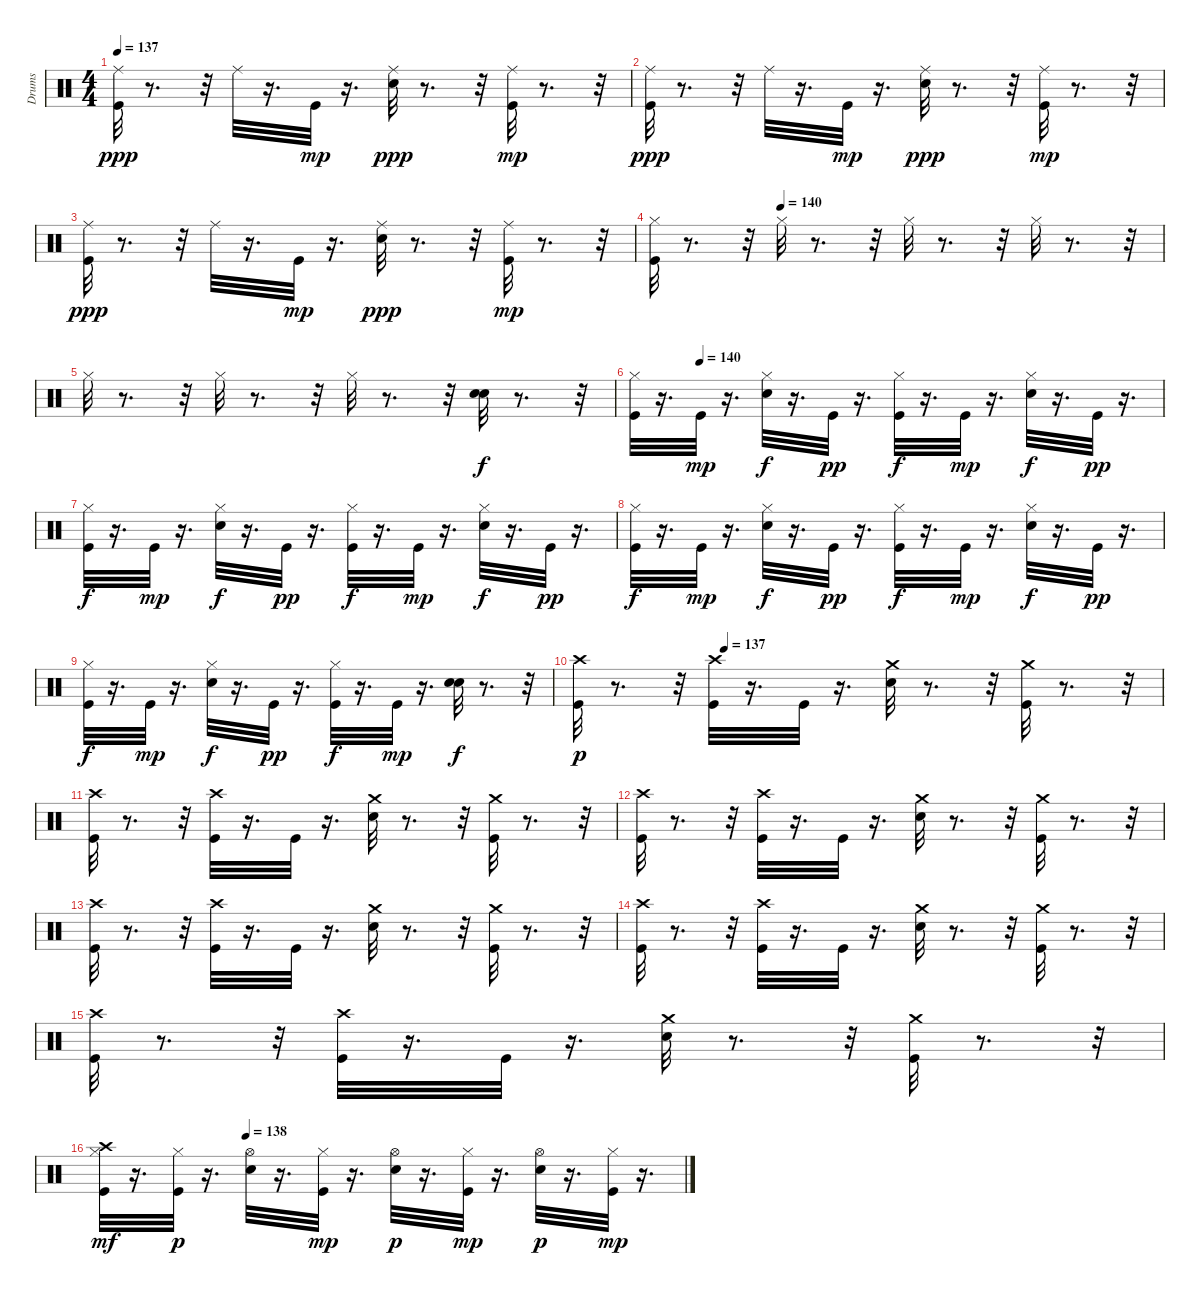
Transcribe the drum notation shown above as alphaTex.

\track ("Drums" "Drums") {instrument percussion}
\staff {score}
\articulation defaults
\ts (4 4)
\tempo 137
\clef neutral
\ks c
("Ride (middle)" "Kick (hit)").32{dy ppp} r.8{d} r.32 "Ride (middle)".32 r.16{d} "Kick (hit)".32{dy mp} r.16{d} ("Ride (middle)" "Snare (hit) 2").32{dy ppp} r.8{d} r.32 ("Ride (middle)" "Kick (hit)").32{dy mp} r.8{d} r.32 |
("Ride (middle)" "Kick (hit)").32{dy ppp} r.8{d} r.32 "Ride (middle)".32 r.16{d} "Kick (hit)".32{dy mp} r.16{d} ("Ride (middle)" "Snare (hit) 2").32{dy ppp} r.8{d} r.32 ("Ride (middle)" "Kick (hit)").32{dy mp} r.8{d} r.32 |
("Ride (middle)" "Kick (hit)").32{dy ppp} r.8{d} r.32 "Ride (middle)".32 r.16{d} "Kick (hit)".32{dy mp} r.16{d} ("Ride (middle)" "Snare (hit) 2").32{dy ppp} r.8{d} r.32 ("Ride (middle)" "Kick (hit)").32{dy mp} r.8{d} r.32 |
\tempo (140 0.25)
("Hi-Hat (closed)" "Kick (hit)").32 r.8{d} r.32 "Hi-Hat (closed)".32 r.8{d} r.32 "Hi-Hat (closed)".32 r.8{d} r.32 "Hi-Hat (closed)".32 r.8{d} r.32 |
"Hi-Hat (closed)".32 r.8{d} r.32 "Hi-Hat (closed)".32 r.8{d} r.32 "Hi-Hat (closed)".32 r.8{d} r.32 ("Electric Snare (hit)" "Snare (hit) 2").32{dy f} r.8{d} r.32 |
\tempo (140 0.125)
("Hi-Hat (closed)" "Kick (hit)").32 r.16{d} "Kick (hit)".32{dy mp} r.16{d} ("Hi-Hat (closed)" "Snare (hit) 2").32{dy f} r.16{d} "Kick (hit)".32{dy pp} r.16{d} ("Hi-Hat (closed)" "Kick (hit)").32{dy f} r.16{d} "Kick (hit)".32{dy mp} r.16{d} ("Hi-Hat (closed)" "Snare (hit) 2").32{dy f} r.16{d} "Kick (hit)".32{dy pp} r.16{d} |
("Hi-Hat (closed)" "Kick (hit)").32{dy f} r.16{d} "Kick (hit)".32{dy mp} r.16{d} ("Hi-Hat (closed)" "Snare (hit) 2").32{dy f} r.16{d} "Kick (hit)".32{dy pp} r.16{d} ("Hi-Hat (closed)" "Kick (hit)").32{dy f} r.16{d} "Kick (hit)".32{dy mp} r.16{d} ("Hi-Hat (closed)" "Snare (hit) 2").32{dy f} r.16{d} "Kick (hit)".32{dy pp} r.16{d} |
("Hi-Hat (closed)" "Kick (hit)").32{dy f} r.16{d} "Kick (hit)".32{dy mp} r.16{d} ("Hi-Hat (closed)" "Snare (hit) 2").32{dy f} r.16{d} "Kick (hit)".32{dy pp} r.16{d} ("Hi-Hat (closed)" "Kick (hit)").32{dy f} r.16{d} "Kick (hit)".32{dy mp} r.16{d} ("Hi-Hat (closed)" "Snare (hit) 2").32{dy f} r.16{d} "Kick (hit)".32{dy pp} r.16{d} |
("Hi-Hat (closed)" "Kick (hit)").32{dy f} r.16{d} "Kick (hit)".32{dy mp} r.16{d} ("Hi-Hat (closed)" "Snare (hit) 2").32{dy f} r.16{d} "Kick (hit)".32{dy pp} r.16{d} ("Hi-Hat (closed)" "Kick (hit)").32{dy f} r.16{d} "Kick (hit)".32{dy mp} r.16{d} ("Electric Snare (hit)" "Snare (hit) 2").32{dy f} r.8{d} r.32 |
\tempo (137 0.25)
("Crash high (hit)" "Kick (hit)").32{dy p} r.8{d} r.32 ("Kick (hit)" "Crash high (hit)").32 r.16{d} "Kick (hit)".32 r.16{d} ("Snare (hit) 2" "Crash medium (hit)").32 r.8{d} r.32 ("Crash medium (hit)" "Kick (hit)").32 r.8{d} r.32 |
("Crash high (hit)" "Kick (hit)").32 r.8{d} r.32 ("Kick (hit)" "Crash high (hit)").32 r.16{d} "Kick (hit)".32 r.16{d} ("Snare (hit) 2" "Crash medium (hit)").32 r.8{d} r.32 ("Crash medium (hit)" "Kick (hit)").32 r.8{d} r.32 |
("Crash high (hit)" "Kick (hit)").32 r.8{d} r.32 ("Kick (hit)" "Crash high (hit)").32 r.16{d} "Kick (hit)".32 r.16{d} ("Snare (hit) 2" "Crash medium (hit)").32 r.8{d} r.32 ("Crash medium (hit)" "Kick (hit)").32 r.8{d} r.32 |
("Crash high (hit)" "Kick (hit)").32 r.8{d} r.32 ("Kick (hit)" "Crash high (hit)").32 r.16{d} "Kick (hit)".32 r.16{d} ("Snare (hit) 2" "Crash medium (hit)").32 r.8{d} r.32 ("Crash medium (hit)" "Kick (hit)").32 r.8{d} r.32 |
("Crash high (hit)" "Kick (hit)").32 r.8{d} r.32 ("Kick (hit)" "Crash high (hit)").32 r.16{d} "Kick (hit)".32 r.16{d} ("Snare (hit) 2" "Crash medium (hit)").32 r.8{d} r.32 ("Crash medium (hit)" "Kick (hit)").32 r.8{d} r.32 |
("Crash high (hit)" "Kick (hit)").32 r.8{d} r.32 ("Kick (hit)" "Crash high (hit)").32 r.16{d} "Kick (hit)".32 r.16{d} ("Snare (hit) 2" "Crash medium (hit)").32 r.8{d} r.32 ("Crash medium (hit)" "Kick (hit)").32 r.8{d} r.32 |
\tempo (138 0.25)
("Crash high (hit)" "Hi-Hat (closed)" "Kick (hit)").32{dy mf} r.16{d} ("Hi-Hat (closed)" "Kick (hit)").32{dy p} r.16{d} ("Hi-Hat (open)" "Snare (hit) 2").32 r.16{d} ("Hi-Hat (closed)" "Kick (hit)").32{dy mp} r.16{d} ("Hi-Hat (open)" "Snare (hit) 2").32{dy p} r.16{d} ("Hi-Hat (closed)" "Kick (hit)").32{dy mp} r.16{d} ("Hi-Hat (open)" "Snare (hit) 2").32{dy p} r.16{d} ("Hi-Hat (closed)" "Kick (hit)").32{dy mp} r.16{d}
